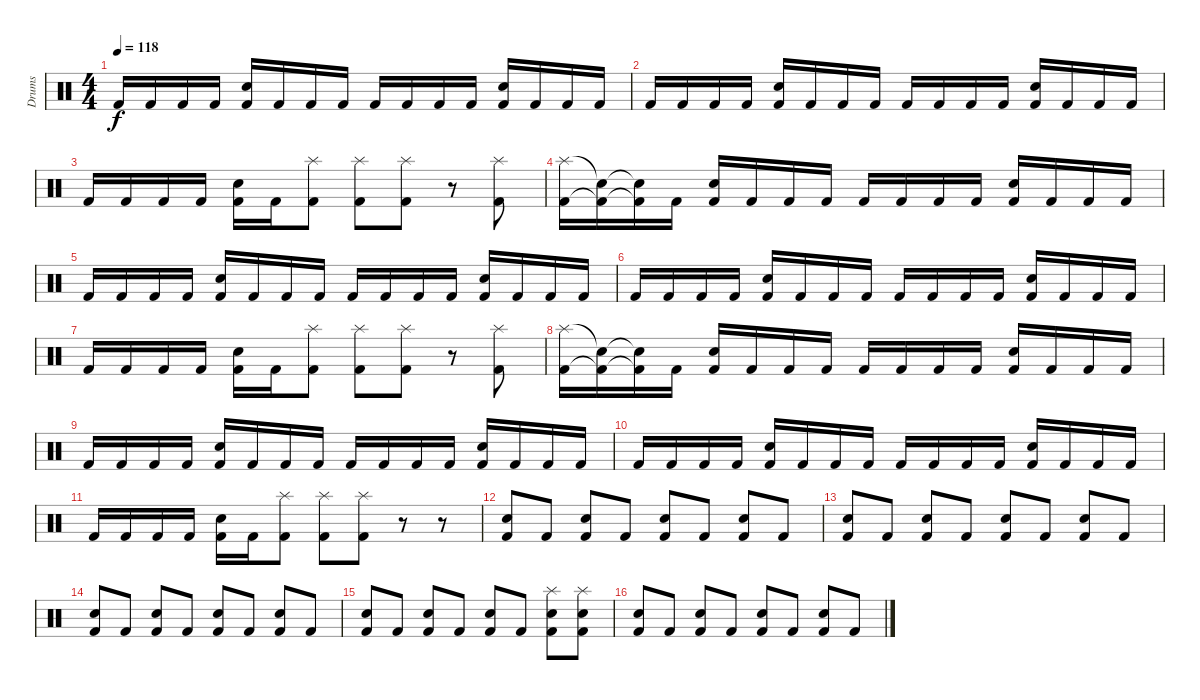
\track ("Drums" "Drums") {instrument percussion}
\staff {score}
\articulation defaults
\ts (4 4)
\tempo 118
\clef neutral
\ks c "Kick (hit) 2".16{dy f} "Kick (hit) 2".16 "Kick (hit) 2".16 "Kick (hit) 2".16
("Snare (hit) 2" "Kick (hit) 2").16 "Kick (hit) 2".16 "Kick (hit) 2".16 "Kick (hit) 2".16 "Kick (hit) 2".16 "Kick (hit) 2".16 "Kick (hit) 2".16 "Kick (hit) 2".16 ("Snare (hit) 2" "Kick (hit) 2").16 "Kick (hit) 2".16 "Kick (hit) 2".16 "Kick (hit) 2".16 |
"Kick (hit) 2".16 "Kick (hit) 2".16 "Kick (hit) 2".16 "Kick (hit) 2".16 ("Snare (hit) 2" "Kick (hit) 2").16 "Kick (hit) 2".16 "Kick (hit) 2".16 "Kick (hit) 2".16 "Kick (hit) 2".16 "Kick (hit) 2".16 "Kick (hit) 2".16 "Kick (hit) 2".16 ("Snare (hit) 2" "Kick (hit) 2").16 "Kick (hit) 2".16 "Kick (hit) 2".16 "Kick (hit) 2".16 |
"Kick (hit) 2".16 "Kick (hit) 2".16 "Kick (hit) 2".16 "Kick (hit) 2".16 ("Snare (hit) 2" "Kick (hit) 2").16 "Kick (hit) 2".16 ("Splash (hit)" "Kick (hit) 2").8 ("Splash (hit)" "Kick (hit) 2").8 ("Splash (hit)" "Kick (hit) 2").8 r.8 ("Splash (hit)" "Kick (hit) 2").8 |
("Splash (hit)" "Kick (hit) 2").16 ("Snare (hit)"{t} "Kick (hit) 2"{t}).16 ("Snare (hit)"{t} "Kick (hit) 2"{t}).16 "Kick (hit) 2".16 ("Snare (hit) 2" "Kick (hit) 2").16 "Kick (hit) 2".16 "Kick (hit) 2".16 "Kick (hit) 2".16 "Kick (hit) 2".16 "Kick (hit) 2".16 "Kick (hit) 2".16 "Kick (hit) 2".16 ("Snare (hit) 2" "Kick (hit) 2").16 "Kick (hit) 2".16 "Kick (hit) 2".16 "Kick (hit) 2".16 |
"Kick (hit) 2".16 "Kick (hit) 2".16 "Kick (hit) 2".16 "Kick (hit) 2".16 ("Snare (hit) 2" "Kick (hit) 2").16 "Kick (hit) 2".16 "Kick (hit) 2".16 "Kick (hit) 2".16 "Kick (hit) 2".16 "Kick (hit) 2".16 "Kick (hit) 2".16 "Kick (hit) 2".16 ("Snare (hit) 2" "Kick (hit) 2").16 "Kick (hit) 2".16 "Kick (hit) 2".16 "Kick (hit) 2".16 |
"Kick (hit) 2".16 "Kick (hit) 2".16 "Kick (hit) 2".16 "Kick (hit) 2".16 ("Snare (hit) 2" "Kick (hit) 2").16 "Kick (hit) 2".16 "Kick (hit) 2".16 "Kick (hit) 2".16 "Kick (hit) 2".16 "Kick (hit) 2".16 "Kick (hit) 2".16 "Kick (hit) 2".16 ("Snare (hit) 2" "Kick (hit) 2").16 "Kick (hit) 2".16 "Kick (hit) 2".16 "Kick (hit) 2".16 |
"Kick (hit) 2".16 "Kick (hit) 2".16 "Kick (hit) 2".16 "Kick (hit) 2".16 ("Snare (hit) 2" "Kick (hit) 2").16 "Kick (hit) 2".16 ("Splash (hit)" "Kick (hit) 2").8 ("Splash (hit)" "Kick (hit) 2").8 ("Splash (hit)" "Kick (hit) 2").8 r.8 ("Splash (hit)" "Kick (hit) 2").8 |
("Splash (hit)" "Kick (hit) 2").16 ("Snare (hit)"{t} "Kick (hit) 2"{t}).16 ("Snare (hit)"{t} "Kick (hit) 2"{t}).16 "Kick (hit) 2".16 ("Snare (hit) 2" "Kick (hit) 2").16 "Kick (hit) 2".16 "Kick (hit) 2".16 "Kick (hit) 2".16 "Kick (hit) 2".16 "Kick (hit) 2".16 "Kick (hit) 2".16 "Kick (hit) 2".16 ("Snare (hit) 2" "Kick (hit) 2").16 "Kick (hit) 2".16 "Kick (hit) 2".16 "Kick (hit) 2".16 |
"Kick (hit) 2".16 "Kick (hit) 2".16 "Kick (hit) 2".16 "Kick (hit) 2".16 ("Snare (hit) 2" "Kick (hit) 2").16 "Kick (hit) 2".16 "Kick (hit) 2".16 "Kick (hit) 2".16 "Kick (hit) 2".16 "Kick (hit) 2".16 "Kick (hit) 2".16 "Kick (hit) 2".16 ("Snare (hit) 2" "Kick (hit) 2").16 "Kick (hit) 2".16 "Kick (hit) 2".16 "Kick (hit) 2".16 |
"Kick (hit) 2".16 "Kick (hit) 2".16 "Kick (hit) 2".16 "Kick (hit) 2".16 ("Snare (hit) 2" "Kick (hit) 2").16 "Kick (hit) 2".16 "Kick (hit) 2".16 "Kick (hit) 2".16 "Kick (hit) 2".16 "Kick (hit) 2".16 "Kick (hit) 2".16 "Kick (hit) 2".16 ("Snare (hit) 2" "Kick (hit) 2").16 "Kick (hit) 2".16 "Kick (hit) 2".16 "Kick (hit) 2".16 |
"Kick (hit) 2".16 "Kick (hit) 2".16 "Kick (hit) 2".16 "Kick (hit) 2".16 ("Snare (hit) 2" "Kick (hit) 2").16 "Kick (hit) 2".16 ("Splash (hit)" "Kick (hit) 2").8 ("Splash (hit)" "Kick (hit) 2").8 ("Splash (hit)" "Kick (hit) 2").8 r.8 r.8 |
("Snare (hit) 2" "Kick (hit) 2").8 "Kick (hit) 2".8 ("Snare (hit) 2" "Kick (hit) 2").8 "Kick (hit) 2".8 ("Snare (hit) 2" "Kick (hit) 2").8 "Kick (hit) 2".8 ("Snare (hit) 2" "Kick (hit) 2").8 "Kick (hit) 2".8 |
("Snare (hit) 2" "Kick (hit) 2").8 "Kick (hit) 2".8 ("Snare (hit) 2" "Kick (hit) 2").8 "Kick (hit) 2".8 ("Snare (hit) 2" "Kick (hit) 2").8 "Kick (hit) 2".8 ("Snare (hit) 2" "Kick (hit) 2").8 "Kick (hit) 2".8 |
("Snare (hit) 2" "Kick (hit) 2").8 "Kick (hit) 2".8 ("Snare (hit) 2" "Kick (hit) 2").8 "Kick (hit) 2".8 ("Snare (hit) 2" "Kick (hit) 2").8 "Kick (hit) 2".8 ("Snare (hit) 2" "Kick (hit) 2").8 "Kick (hit) 2".8 |
("Snare (hit) 2" "Kick (hit) 2").8 "Kick (hit) 2".8 ("Snare (hit) 2" "Kick (hit) 2").8 "Kick (hit) 2".8 ("Snare (hit) 2" "Kick (hit) 2").8 "Kick (hit) 2".8 ("Splash (hit)" "Snare (hit) 2" "Kick (hit) 2").8 ("Splash (hit)" "Snare (hit) 2" "Kick (hit) 2").8 |
("Snare (hit) 2" "Kick (hit) 2").8 "Kick (hit) 2".8 ("Snare (hit) 2" "Kick (hit) 2").8 "Kick (hit) 2".8 ("Snare (hit) 2" "Kick (hit) 2").8 "Kick (hit) 2".8 ("Snare (hit) 2" "Kick (hit) 2").8 "Kick (hit) 2".8
